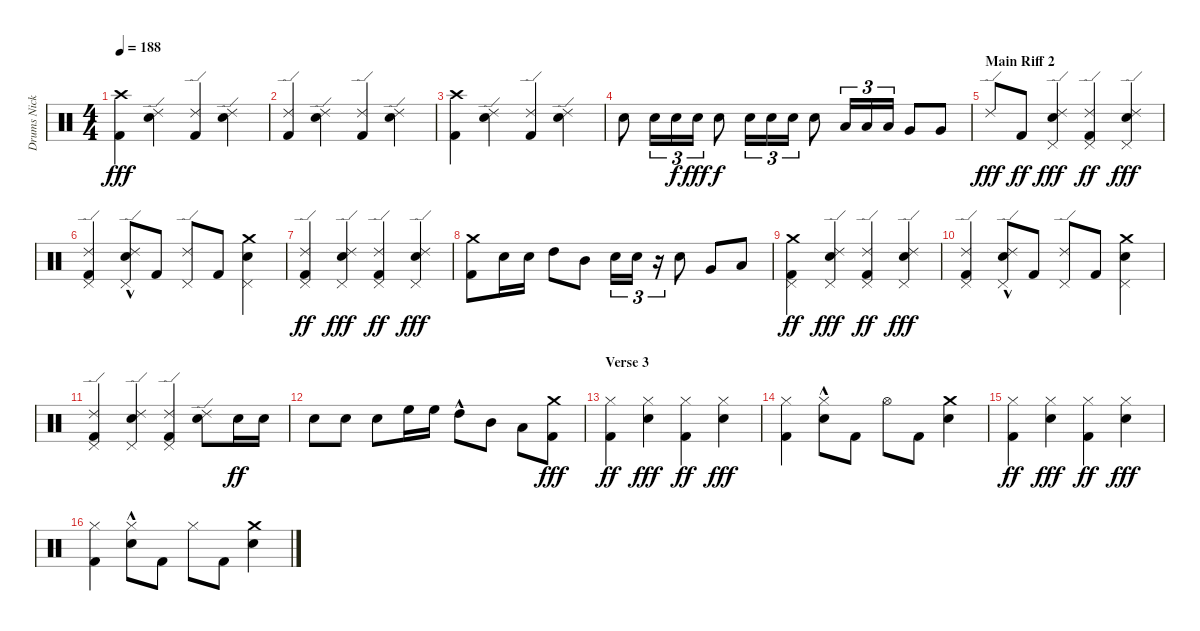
\track ("Drums Nicko McBrain" "Drums Nick") {instrument percussion}
\staff {score}
\articulation defaults
\ts (4 4)
\tempo 188
\clef neutral
\ks c
("Crash high (hit)" "Kick (hit) 2").4{dy fff} ("Ride (edge) 2" "Electric Snare (hit)").4 ("Ride (edge) 2" "Kick (hit) 2").4 ("Ride (edge) 2" "Electric Snare (hit)").4 |
("Ride (edge) 2" "Kick (hit) 2").4 ("Ride (edge) 2" "Electric Snare (hit)").4 ("Ride (edge) 2" "Kick (hit) 2").4 ("Ride (edge) 2" "Electric Snare (hit)").4 |
("Crash high (hit)" "Kick (hit) 2").4 ("Ride (edge) 2" "Electric Snare (hit)").4 ("Ride (edge) 2" "Kick (hit) 2").4 ("Ride (edge) 2" "Electric Snare (hit)").4 |
"Electric Snare (hit)".8 "Electric Snare (hit)".16{tu (3 2)} "Electric Snare (hit)".16{tu (3 2) dy f} "Electric Snare (hit)".16{tu (3 2) dy fff} "Electric Snare (hit)".8{dy f} "Electric Snare (hit)".16{tu (3 2)} "Electric Snare (hit)".16{tu (3 2)} "Electric Snare (hit)".16{tu (3 2)} "Electric Snare (hit)".8 "Low Tom (hit)".16{tu (3 2)} "Low Tom (hit)".16{tu (3 2)} "Low Tom (hit)".16{tu (3 2)} "Very Low Tom (hit)".8 "Very Low Tom (hit)".8 |
\section ("" "Main Riff 2")
"Ride (edge) 2".8{dy fff} "Kick (hit) 2".8{dy ff} ("Ride (edge) 2" "Electric Snare (hit)" "Pedal Hi-Hat (hit)").4{dy fff} ("Ride (edge) 2" "Pedal Hi-Hat (hit)" "Kick (hit) 2").4{dy ff} ("Ride (edge) 2" "Electric Snare (hit)" "Pedal Hi-Hat (hit)").4{dy fff} |
("Ride (edge) 2" "Pedal Hi-Hat (hit)" "Kick (hit) 2").4 ("Ride (edge) 2" "Electric Snare (hit)"{hac} "Pedal Hi-Hat (hit)").8 "Kick (hit) 2".8 ("Ride (edge) 2" "Pedal Hi-Hat (hit)").8 "Kick (hit) 2".8 ("Crash medium (hit)" "Electric Snare (hit)" "Pedal Hi-Hat (hit)").4 |
("Ride (edge) 2" "Pedal Hi-Hat (hit)" "Kick (hit) 2").4{dy ff} ("Ride (edge) 2" "Electric Snare (hit)" "Pedal Hi-Hat (hit)").4{dy fff} ("Ride (edge) 2" "Pedal Hi-Hat (hit)" "Kick (hit) 2").4{dy ff} ("Ride (edge) 2" "Electric Snare (hit)" "Pedal Hi-Hat (hit)").4{dy fff} |
("Crash medium (hit)" "Kick (hit) 2").8 "Electric Snare (hit)".16 "Electric Snare (hit)".16 "High Tom (hit)".8 "Mid Tom (hit)".8 "Electric Snare (hit)".16{tu (3 2)} "Electric Snare (hit)".16{tu (3 2)} r.16{tu (3 2)} "Electric Snare (hit)".8 "Very Low Tom (hit)".8 "Low Floor Tom (hit)".8 |
("Crash medium (hit)" "Pedal Hi-Hat (hit)" "Kick (hit) 2").4{dy ff} ("Ride (edge) 2" "Electric Snare (hit)" "Pedal Hi-Hat (hit)").4{dy fff} ("Ride (edge) 2" "Pedal Hi-Hat (hit)" "Kick (hit) 2").4{dy ff} ("Ride (edge) 2" "Electric Snare (hit)" "Pedal Hi-Hat (hit)").4{dy fff} |
("Ride (edge) 2" "Pedal Hi-Hat (hit)" "Kick (hit) 2").4 ("Ride (edge) 2" "Electric Snare (hit)"{hac} "Pedal Hi-Hat (hit)").8 "Kick (hit) 2".8 ("Ride (edge) 2" "Pedal Hi-Hat (hit)").8 "Kick (hit) 2".8 ("Crash medium (hit)" "Electric Snare (hit)" "Pedal Hi-Hat (hit)").4 |
("Ride (edge) 2" "Pedal Hi-Hat (hit)" "Kick (hit) 2").4 ("Ride (edge) 2" "Electric Snare (hit)" "Pedal Hi-Hat (hit)").4 ("Ride (edge) 2" "Pedal Hi-Hat (hit)" "Kick (hit) 2").4 ("Ride (edge) 2" "Electric Snare (hit)").8 "Electric Snare (hit)".16{dy ff} "Electric Snare (hit)".16 |
"Electric Snare (hit)".8 "Electric Snare (hit)".8 "Electric Snare (hit)".8 "High Floor Tom (hit)".16 "High Floor Tom (hit)".16 "High Tom (hit)"{hac}.8 "Mid Tom (hit)".8 "Low Tom (hit)".8 ("Crash medium (hit)" "Kick (hit) 2").8{dy fff} |
\section ("" "Verse 3")
("Hi-Hat (closed)" "Kick (hit) 2").4{dy ff} ("Hi-Hat (closed)" "Electric Snare (hit)").4{dy fff} ("Hi-Hat (closed)" "Kick (hit) 2").4{dy ff} ("Hi-Hat (closed)" "Electric Snare (hit)").4{dy fff} |
("Hi-Hat (closed)" "Kick (hit) 2").4 ("Hi-Hat (closed)" "Electric Snare (hit)"{hac}).8 "Kick (hit) 2".8 "Hi-Hat (open)".8 "Kick (hit) 2".8 ("Crash medium (hit)" "Electric Snare (hit)").4 |
("Hi-Hat (closed)" "Kick (hit) 2").4{dy ff} ("Hi-Hat (closed)" "Electric Snare (hit)").4{dy fff} ("Hi-Hat (closed)" "Kick (hit) 2").4{dy ff} ("Hi-Hat (closed)" "Electric Snare (hit)").4{dy fff} |
("Hi-Hat (closed)" "Kick (hit) 2").4 ("Hi-Hat (closed)" "Electric Snare (hit)"{hac}).8 "Kick (hit) 2".8 "Hi-Hat (closed)".8 "Kick (hit) 2".8 ("Crash medium (hit)" "Electric Snare (hit)").4
